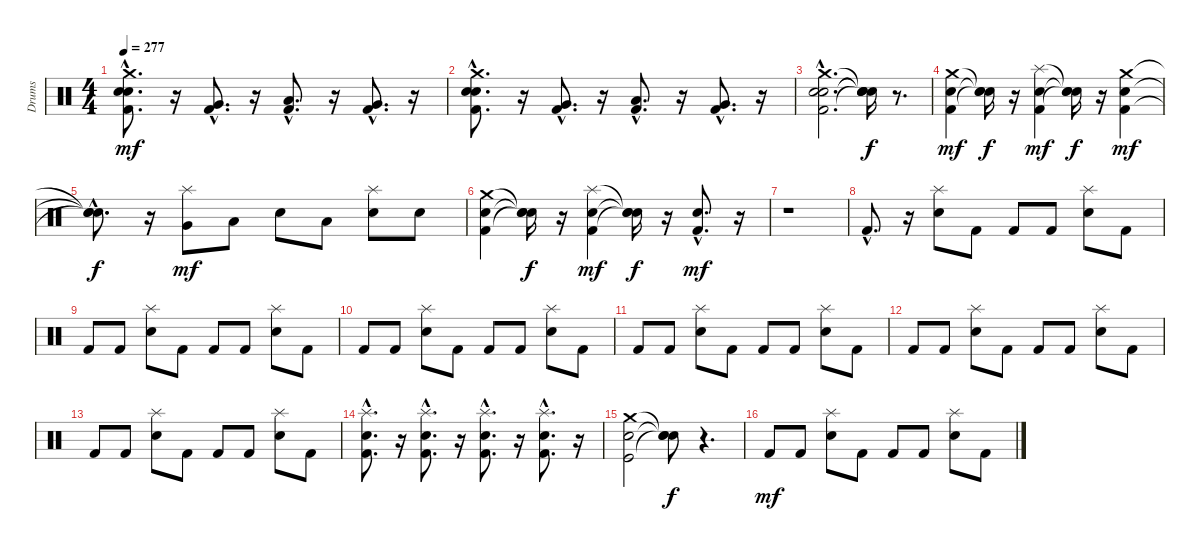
\track ("Drums" "Drums") {instrument percussion}
\staff {score}
\articulation defaults
\ts (4 4)
\tempo 277
\clef neutral
\ks c
("Crash medium (hit)"{hac} "Kick (hit) 2"{hac} "Electric Snare (hit)"{hac} "Snare (hit) 2"{hac}).8{d dy mf} r.16 ("Very Low Tom (hit)"{hac} "Kick (hit) 2"{hac}).8{d} r.16 ("Kick (hit) 2"{hac} "Low Floor Tom (hit)"{hac}).8{d} r.16 ("Kick (hit) 2"{hac} "Very Low Tom (hit)"{hac}).8{d} r.16 |
("Crash medium (hit)"{hac} "Kick (hit) 2"{hac} "Snare (hit) 2"{hac} "Electric Snare (hit)"{hac}).8{d} r.16 ("Very Low Tom (hit)"{hac} "Kick (hit) 2"{hac}).8{d} r.16 ("Low Floor Tom (hit)"{hac} "Kick (hit) 2"{hac}).8{d} r.16 ("Kick (hit) 2"{hac} "Very Low Tom (hit)"{hac}).8{d} r.16 |
("Crash medium (hit)"{hac} "Electric Snare (hit)"{hac} "Kick (hit) 2"{hac} "Snare (hit) 2"{hac}).2{d} ("Snare (hit)"{t} "Snare (hit)"{t} "Snare (hit)"{t} "Snare (hit)"{t}).16{dy f} r.8{d} |
("Kick (hit) 2" "Snare (hit) 2" "Crash medium (hit)").4{dy mf} ("Snare (hit)"{t} "Snare (hit)"{t} "Snare (hit)"{t}).16{dy f} r.16 ("Splash (hit)" "Electric Snare (hit)" "Kick (hit) 2").4{dy mf} ("Snare (hit)"{t} "Snare (hit)"{t} "Snare (hit)"{t}).16{dy f} r.16 ("Crash medium (hit)" "Kick (hit) 2" "Electric Snare (hit)").4{dy mf} |
("Snare (hit)"{hac t} "Snare (hit)"{hac t} "Snare (hit)"{hac t}).8{d dy f} r.16 ("Very Low Tom (hit)" "Splash (hit)").8{dy mf} "Low Floor Tom (hit)".8 "Snare (hit) 2".8 "Low Floor Tom (hit)".8 ("Electric Snare (hit)" "Splash (hit)").8 "Snare (hit) 2".8 |
("Snare (hit) 2" "Crash medium (hit)" "Kick (hit) 2").4 ("Snare (hit)"{t} "Snare (hit)"{t} "Snare (hit)"{t}).16{dy f} r.16 ("Electric Snare (hit)" "Splash (hit)" "Kick (hit) 2").4{dy mf} ("Snare (hit)"{t} "Snare (hit)"{t} "Snare (hit)"{t}).16{dy f} r.16 ("Kick (hit) 2"{hac} "Electric Snare (hit)"{hac}).8{d dy mf} r.16 |
r.1 |
"Kick (hit) 2"{hac}.8{d} r.16 ("Splash (hit)" "Electric Snare (hit)").8 "Kick (hit) 2".8 "Kick (hit) 2".8 "Kick (hit) 2".8 ("Electric Snare (hit)" "Splash (hit)").8 "Kick (hit) 2".8 |
"Kick (hit) 2".8 "Kick (hit) 2".8 ("Electric Snare (hit)" "Splash (hit)").8 "Kick (hit) 2".8 "Kick (hit) 2".8 "Kick (hit) 2".8 ("Splash (hit)" "Electric Snare (hit)").8 "Kick (hit) 2".8 |
"Kick (hit) 2".8 "Kick (hit) 2".8 ("Electric Snare (hit)" "Splash (hit)").8 "Kick (hit) 2".8 "Kick (hit) 2".8 "Kick (hit) 2".8 ("Splash (hit)" "Electric Snare (hit)").8 "Kick (hit) 2".8 |
"Kick (hit) 2".8 "Kick (hit) 2".8 ("Electric Snare (hit)" "Splash (hit)").8 "Kick (hit) 2".8 "Kick (hit) 2".8 "Kick (hit) 2".8 ("Splash (hit)" "Electric Snare (hit)").8 "Kick (hit) 2".8 |
"Kick (hit) 2".8 "Kick (hit) 2".8 ("Electric Snare (hit)" "Splash (hit)").8 "Kick (hit) 2".8 "Kick (hit) 2".8 "Kick (hit) 2".8 ("Splash (hit)" "Electric Snare (hit)").8 "Kick (hit) 2".8 |
"Kick (hit) 2".8 "Kick (hit) 2".8 ("Splash (hit)" "Electric Snare (hit)").8 "Kick (hit) 2".8 "Kick (hit) 2".8 "Kick (hit) 2".8 ("Splash (hit)" "Electric Snare (hit)").8 "Kick (hit) 2".8 |
("Electric Snare (hit)"{hac} "Kick (hit) 2"{hac} "Splash (hit)"{hac}).8{d} r.16 ("Kick (hit) 2"{hac} "Splash (hit)"{hac} "Electric Snare (hit)"{hac}).8{d} r.16 ("Kick (hit) 2"{hac} "Snare (hit) 2"{hac} "Splash (hit)"{hac}).8{d} r.16 ("Snare (hit) 2"{hac} "Kick (hit) 2"{hac} "Splash (hit)"{hac}).8{d} r.16 |
("Kick (hit)" "Snare (hit) 2" "Crash medium (hit)").2 ("Snare (hit)"{t} "Snare (hit)"{t} "Snare (hit)"{t}).8{dy f} r.4{d} |
"Kick (hit) 2".8{dy mf} "Kick (hit) 2".8 ("Electric Snare (hit)" "Splash (hit)").8 "Kick (hit) 2".8 "Kick (hit) 2".8 "Kick (hit) 2".8 ("Electric Snare (hit)" "Splash (hit)").8 "Kick (hit) 2".8
